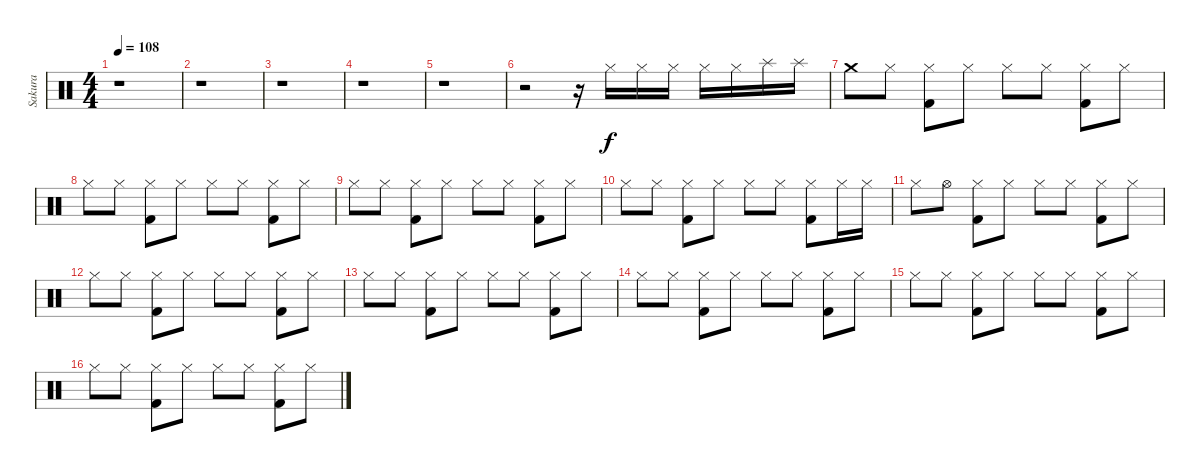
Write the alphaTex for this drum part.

\track ("Sakura" "Sakura") {instrument percussion}
\staff {score}
\articulation defaults
\ts (4 4)
\tempo 108
\clef neutral
\ks c
r.1{dy f} |
r.1 |
r.1 |
r.1 |
r.1 |
r.2 r.16 "Hi-Hat (closed)".16 "Hi-Hat (closed)".16 "Hi-Hat (closed)".16 "Hi-Hat (closed)".16 "Hi-Hat (closed)".16 "Splash (hit)".16 "Splash (hit)".16 |
"Crash medium (hit)".8 "Hi-Hat (closed)".8 ("Hi-Hat (closed)" "Kick (hit) 2").8 "Hi-Hat (closed)".8 "Hi-Hat (closed)".8 "Hi-Hat (closed)".8 ("Hi-Hat (closed)" "Kick (hit) 2").8 "Hi-Hat (closed)".8 |
"Hi-Hat (closed)".8 "Hi-Hat (closed)".8 ("Hi-Hat (closed)" "Kick (hit) 2").8 "Hi-Hat (closed)".8 "Hi-Hat (closed)".8 "Hi-Hat (closed)".8 ("Hi-Hat (closed)" "Kick (hit) 2").8 "Hi-Hat (closed)".8 |
"Hi-Hat (closed)".8 "Hi-Hat (closed)".8 ("Hi-Hat (closed)" "Kick (hit) 2").8 "Hi-Hat (closed)".8 "Hi-Hat (closed)".8 "Hi-Hat (closed)".8 ("Hi-Hat (closed)" "Kick (hit) 2").8 "Hi-Hat (closed)".8 |
"Hi-Hat (closed)".8 "Hi-Hat (closed)".8 ("Hi-Hat (closed)" "Kick (hit) 2").8 "Hi-Hat (closed)".8 "Hi-Hat (closed)".8 "Hi-Hat (closed)".8 ("Hi-Hat (closed)" "Kick (hit) 2").8 "Hi-Hat (closed)".16 "Hi-Hat (closed)".16 |
"Hi-Hat (closed)".8 "Hi-Hat (open)".8 ("Hi-Hat (closed)" "Kick (hit) 2").8 "Hi-Hat (closed)".8 "Hi-Hat (closed)".8 "Hi-Hat (closed)".8 ("Hi-Hat (closed)" "Kick (hit) 2").8 "Hi-Hat (closed)".8 |
"Hi-Hat (closed)".8 "Hi-Hat (closed)".8 ("Hi-Hat (closed)" "Kick (hit) 2").8 "Hi-Hat (closed)".8 "Hi-Hat (closed)".8 "Hi-Hat (closed)".8 ("Hi-Hat (closed)" "Kick (hit) 2").8 "Hi-Hat (closed)".8 |
"Hi-Hat (closed)".8 "Hi-Hat (closed)".8 ("Hi-Hat (closed)" "Kick (hit) 2").8 "Hi-Hat (closed)".8 "Hi-Hat (closed)".8 "Hi-Hat (closed)".8 ("Hi-Hat (closed)" "Kick (hit) 2").8 "Hi-Hat (closed)".8 |
"Hi-Hat (closed)".8 "Hi-Hat (closed)".8 ("Hi-Hat (closed)" "Kick (hit) 2").8 "Hi-Hat (closed)".8 "Hi-Hat (closed)".8 "Hi-Hat (closed)".8 ("Hi-Hat (closed)" "Kick (hit) 2").8 "Hi-Hat (closed)".8 |
"Hi-Hat (closed)".8 "Hi-Hat (closed)".8 ("Hi-Hat (closed)" "Kick (hit) 2").8 "Hi-Hat (closed)".8 "Hi-Hat (closed)".8 "Hi-Hat (closed)".8 ("Hi-Hat (closed)" "Kick (hit) 2").8 "Hi-Hat (closed)".8 |
"Hi-Hat (closed)".8 "Hi-Hat (closed)".8 ("Hi-Hat (closed)" "Kick (hit) 2").8 "Hi-Hat (closed)".8 "Hi-Hat (closed)".8 "Hi-Hat (closed)".8 ("Hi-Hat (closed)" "Kick (hit) 2").8 "Hi-Hat (closed)".8
